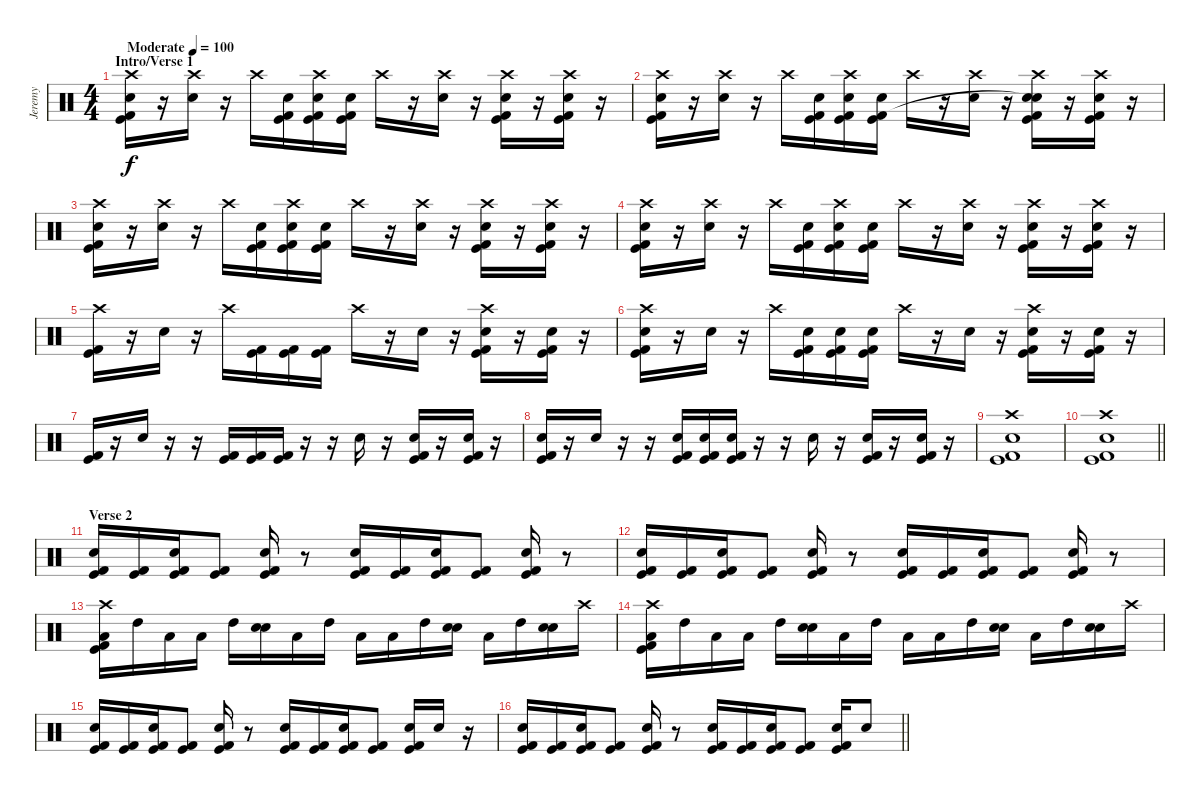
\track ("Jeremy" "Jeremy") {instrument percussion}
\staff {score}
\articulation defaults
\ts (4 4)
\section ("" "Intro/Verse 1")
\tempo (100 "Moderate")
\clef neutral
\ks c
("Crash high (hit)" "Electric Snare (hit)" "Kick (hit)" "Kick (hit) 2").16{dy f} r.16 ("Crash high (hit)" "Electric Snare (hit)").16 r.16 "Crash high (hit)".16 ("Electric Snare (hit)" "Kick (hit) 2" "Kick (hit)").16 ("Crash high (hit)" "Electric Snare (hit)" "Kick (hit) 2" "Kick (hit)").16 ("Electric Snare (hit)" "Kick (hit)" "Kick (hit) 2").16 "Crash high (hit)".16 r.16 ("Crash high (hit)" "Electric Snare (hit)").16 r.16 ("Crash high (hit)" "Electric Snare (hit)" "Kick (hit)" "Kick (hit) 2").16 r.16 ("Crash high (hit)" "Electric Snare (hit)" "Kick (hit)" "Kick (hit) 2").16 r.16 |
("Crash high (hit)" "Electric Snare (hit)" "Kick (hit)" "Kick (hit) 2").16 r.16 ("Crash high (hit)" "Electric Snare (hit)").16 r.16 "Crash high (hit)".16 ("Electric Snare (hit)" "Kick (hit) 2" "Kick (hit)").16 ("Crash high (hit)" "Electric Snare (hit)" "Kick (hit) 2" "Kick (hit)").16 ("Electric Snare (hit)" "Kick (hit)" "Kick (hit) 2").16 "Crash high (hit)".16 r.16 ("Crash high (hit)" "Electric Snare (hit)").16 r.16 ("Crash high (hit)" "Electric Snare (hit)" "Snare (hit)"{t} "Kick (hit)" "Kick (hit) 2").16 r.16 ("Crash high (hit)" "Electric Snare (hit)" "Kick (hit)" "Kick (hit) 2").16 r.16 |
("Crash high (hit)" "Electric Snare (hit)" "Kick (hit)" "Kick (hit) 2").16 r.16 ("Crash high (hit)" "Electric Snare (hit)").16 r.16 "Crash high (hit)".16 ("Electric Snare (hit)" "Kick (hit) 2" "Kick (hit)").16 ("Crash high (hit)" "Electric Snare (hit)" "Kick (hit) 2" "Kick (hit)").16 ("Electric Snare (hit)" "Kick (hit)" "Kick (hit) 2").16 "Crash high (hit)".16 r.16 ("Crash high (hit)" "Electric Snare (hit)").16 r.16 ("Crash high (hit)" "Electric Snare (hit)" "Kick (hit)" "Kick (hit) 2").16 r.16 ("Crash high (hit)" "Electric Snare (hit)" "Kick (hit)" "Kick (hit) 2").16 r.16 |
("Crash high (hit)" "Electric Snare (hit)" "Kick (hit)" "Kick (hit) 2").16 r.16 ("Crash high (hit)" "Electric Snare (hit)").16 r.16 "Crash high (hit)".16 ("Electric Snare (hit)" "Kick (hit) 2" "Kick (hit)").16 ("Crash high (hit)" "Electric Snare (hit)" "Kick (hit) 2" "Kick (hit)").16 ("Electric Snare (hit)" "Kick (hit)" "Kick (hit) 2").16 "Crash high (hit)".16 r.16 ("Crash high (hit)" "Electric Snare (hit)").16 r.16 ("Crash high (hit)" "Electric Snare (hit)" "Kick (hit)" "Kick (hit) 2").16 r.16 ("Crash high (hit)" "Electric Snare (hit)" "Kick (hit)" "Kick (hit) 2").16 r.16 |
("Crash high (hit)" "Kick (hit)" "Kick (hit) 2").16 r.16 "Electric Snare (hit)".16 r.16 "Crash high (hit)".16 ("Kick (hit) 2" "Kick (hit)").16 ("Kick (hit) 2" "Kick (hit)").16 ("Kick (hit)" "Kick (hit) 2").16 "Crash high (hit)".16 r.16 "Electric Snare (hit)".16 r.16 ("Crash high (hit)" "Electric Snare (hit)" "Kick (hit)" "Kick (hit) 2").16 r.16 ("Electric Snare (hit)" "Kick (hit)" "Kick (hit) 2").16 r.16 |
("Crash high (hit)" "Electric Snare (hit)" "Kick (hit)" "Kick (hit) 2").16 r.16 "Electric Snare (hit)".16 r.16 "Crash high (hit)".16 ("Electric Snare (hit)" "Kick (hit) 2" "Kick (hit)").16 ("Electric Snare (hit)" "Kick (hit) 2" "Kick (hit)").16 ("Electric Snare (hit)" "Kick (hit)" "Kick (hit) 2").16 "Crash high (hit)".16 r.16 "Electric Snare (hit)".16 r.16 ("Crash high (hit)" "Electric Snare (hit)" "Kick (hit)" "Kick (hit) 2").16 r.16 ("Electric Snare (hit)" "Kick (hit)" "Kick (hit) 2").16 r.16 |
("Kick (hit)" "Kick (hit) 2").16 r.16 "Electric Snare (hit)".16 r.16 r.16 ("Kick (hit) 2" "Kick (hit)").16 ("Kick (hit) 2" "Kick (hit)").16 ("Kick (hit)" "Kick (hit) 2").16 r.16 r.16 "Electric Snare (hit)".16 r.16 ("Electric Snare (hit)" "Kick (hit)" "Kick (hit) 2").16 r.16 ("Electric Snare (hit)" "Kick (hit)" "Kick (hit) 2").16 r.16 |
("Electric Snare (hit)" "Kick (hit)" "Kick (hit) 2").16 r.16 "Electric Snare (hit)".16 r.16 r.16 ("Electric Snare (hit)" "Kick (hit) 2" "Kick (hit)").16 ("Electric Snare (hit)" "Kick (hit) 2" "Kick (hit)").16 ("Electric Snare (hit)" "Kick (hit)" "Kick (hit) 2").16 r.16 r.16 "Electric Snare (hit)".16 r.16 ("Electric Snare (hit)" "Kick (hit)" "Kick (hit) 2").16 r.16 ("Electric Snare (hit)" "Kick (hit)" "Kick (hit) 2").16 r.16 |
("Crash high (hit)" "Electric Snare (hit)" "Kick (hit) 2" "Kick (hit)").1 |
\barLineRight lightlight
("Crash high (hit)" "Electric Snare (hit)" "Kick (hit)" "Kick (hit) 2").1 |
\section ("" "Verse 2")
("Electric Snare (hit)" "Kick (hit) 2" "Kick (hit)").16 ("Kick (hit)" "Kick (hit) 2").16 ("Electric Snare (hit)" "Kick (hit) 2" "Kick (hit)").16 ("Kick (hit) 2" "Kick (hit)").8 ("Electric Snare (hit)" "Kick (hit) 2" "Kick (hit)").16 r.8 ("Electric Snare (hit)" "Kick (hit) 2" "Kick (hit)").16 ("Kick (hit)" "Kick (hit) 2").16 ("Electric Snare (hit)" "Kick (hit) 2" "Kick (hit)").16 ("Kick (hit) 2" "Kick (hit)").8 ("Electric Snare (hit)" "Kick (hit) 2" "Kick (hit)").16 r.8 |
("Electric Snare (hit)" "Kick (hit) 2" "Kick (hit)").16 ("Kick (hit)" "Kick (hit) 2").16 ("Electric Snare (hit)" "Kick (hit) 2" "Kick (hit)").16 ("Kick (hit) 2" "Kick (hit)").8 ("Electric Snare (hit)" "Kick (hit) 2" "Kick (hit)").16 r.8 ("Electric Snare (hit)" "Kick (hit) 2" "Kick (hit)").16 ("Kick (hit)" "Kick (hit) 2").16 ("Electric Snare (hit)" "Kick (hit) 2" "Kick (hit)").16 ("Kick (hit) 2" "Kick (hit)").8 ("Electric Snare (hit)" "Kick (hit) 2" "Kick (hit)").16 r.8 |
("Crash high (hit)" "Low Tom (hit)" "Kick (hit) 2" "Kick (hit)").16 "High Tom (hit)".16 "Low Tom (hit)".16 "Low Tom (hit)".16 "High Tom (hit)".16 ("Electric Snare (hit)" "Electric Snare (hit)").16 "Low Tom (hit)".16 "High Tom (hit)".16 "Low Tom (hit)".16 "Low Tom (hit)".16 "High Tom (hit)".16 ("Electric Snare (hit)" "Electric Snare (hit)").16 "Low Tom (hit)".16 "High Tom (hit)".16 ("Electric Snare (hit)" "Electric Snare (hit)").16 "Crash high (hit)".16 |
("Crash high (hit)" "Low Tom (hit)" "Kick (hit) 2" "Kick (hit)").16 "High Tom (hit)".16 "Low Tom (hit)".16 "Low Tom (hit)".16 "High Tom (hit)".16 ("Electric Snare (hit)" "Electric Snare (hit)").16 "Low Tom (hit)".16 "High Tom (hit)".16 "Low Tom (hit)".16 "Low Tom (hit)".16 "High Tom (hit)".16 ("Electric Snare (hit)" "Electric Snare (hit)").16 "Low Tom (hit)".16 "High Tom (hit)".16 ("Electric Snare (hit)" "Electric Snare (hit)").16 "Crash high (hit)".16 |
("Electric Snare (hit)" "Kick (hit) 2" "Kick (hit)").16 ("Kick (hit)" "Kick (hit) 2").16 ("Electric Snare (hit)" "Kick (hit) 2" "Kick (hit)").16 ("Kick (hit) 2" "Kick (hit)").8 ("Electric Snare (hit)" "Kick (hit) 2" "Kick (hit)").16 r.8 ("Electric Snare (hit)" "Kick (hit) 2" "Kick (hit)").16 ("Kick (hit)" "Kick (hit) 2").16 ("Electric Snare (hit)" "Kick (hit) 2" "Kick (hit)").16 ("Kick (hit) 2" "Kick (hit)").8 ("Electric Snare (hit)" "Kick (hit) 2" "Kick (hit)").16 "Electric Snare (hit)".16 r.16 |
\barLineRight lightlight
("Electric Snare (hit)" "Kick (hit) 2" "Kick (hit)").16 ("Kick (hit)" "Kick (hit) 2").16 ("Electric Snare (hit)" "Kick (hit) 2" "Kick (hit)").16 ("Kick (hit) 2" "Kick (hit)").8 ("Electric Snare (hit)" "Kick (hit) 2" "Kick (hit)").16 r.8 ("Electric Snare (hit)" "Kick (hit) 2" "Kick (hit)").16 ("Kick (hit)" "Kick (hit) 2").16 ("Electric Snare (hit)" "Kick (hit) 2" "Kick (hit)").16 ("Kick (hit) 2" "Kick (hit)").8 ("Electric Snare (hit)" "Kick (hit) 2" "Kick (hit)").16 "Electric Snare (hit)".8
